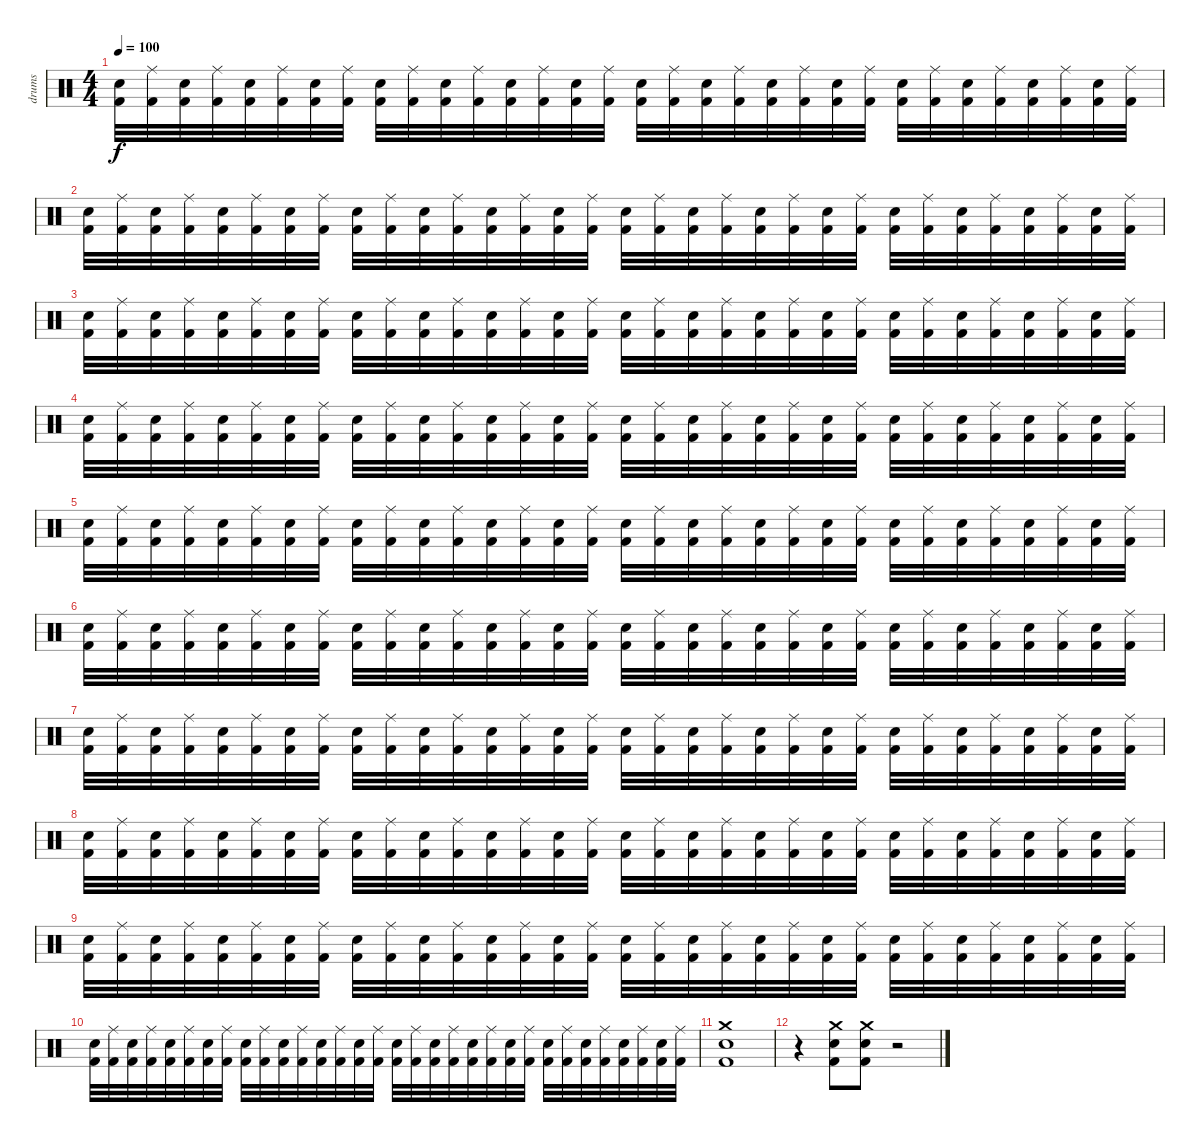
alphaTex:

\track ("drums" "drums") {instrument percussion}
\staff {score}
\articulation defaults
\ts (4 4)
\tempo 100
\clef neutral
\ks c
("Electric Snare (hit)" "Kick (hit) 2").32{dy f} ("Ride (middle)" "Kick (hit) 2").32 ("Electric Snare (hit)" "Kick (hit) 2").32 ("Ride (middle)" "Kick (hit) 2").32 ("Electric Snare (hit)" "Kick (hit) 2").32 ("Ride (middle)" "Kick (hit) 2").32 ("Electric Snare (hit)" "Kick (hit) 2").32 ("Ride (middle)" "Kick (hit) 2").32 ("Electric Snare (hit)" "Kick (hit) 2").32 ("Ride (middle)" "Kick (hit) 2").32 ("Electric Snare (hit)" "Kick (hit) 2").32 ("Ride (middle)" "Kick (hit) 2").32 ("Electric Snare (hit)" "Kick (hit) 2").32 ("Ride (middle)" "Kick (hit) 2").32 ("Electric Snare (hit)" "Kick (hit) 2").32 ("Ride (middle)" "Kick (hit) 2").32 ("Electric Snare (hit)" "Kick (hit) 2").32 ("Ride (middle)" "Kick (hit) 2").32 ("Electric Snare (hit)" "Kick (hit) 2").32 ("Ride (middle)" "Kick (hit) 2").32 ("Electric Snare (hit)" "Kick (hit) 2").32 ("Ride (middle)" "Kick (hit) 2").32 ("Electric Snare (hit)" "Kick (hit) 2").32 ("Ride (middle)" "Kick (hit) 2").32 ("Electric Snare (hit)" "Kick (hit) 2").32 ("Ride (middle)" "Kick (hit) 2").32 ("Electric Snare (hit)" "Kick (hit) 2").32 ("Ride (middle)" "Kick (hit) 2").32 ("Electric Snare (hit)" "Kick (hit) 2").32 ("Ride (middle)" "Kick (hit) 2").32 ("Electric Snare (hit)" "Kick (hit) 2").32 ("Ride (middle)" "Kick (hit) 2").32 |
("Electric Snare (hit)" "Kick (hit) 2").32 ("Ride (middle)" "Kick (hit) 2").32 ("Electric Snare (hit)" "Kick (hit) 2").32 ("Ride (middle)" "Kick (hit) 2").32 ("Electric Snare (hit)" "Kick (hit) 2").32 ("Ride (middle)" "Kick (hit) 2").32 ("Electric Snare (hit)" "Kick (hit) 2").32 ("Ride (middle)" "Kick (hit) 2").32 ("Electric Snare (hit)" "Kick (hit) 2").32 ("Ride (middle)" "Kick (hit) 2").32 ("Electric Snare (hit)" "Kick (hit) 2").32 ("Ride (middle)" "Kick (hit) 2").32 ("Electric Snare (hit)" "Kick (hit) 2").32 ("Ride (middle)" "Kick (hit) 2").32 ("Electric Snare (hit)" "Kick (hit) 2").32 ("Ride (middle)" "Kick (hit) 2").32 ("Electric Snare (hit)" "Kick (hit) 2").32 ("Ride (middle)" "Kick (hit) 2").32 ("Electric Snare (hit)" "Kick (hit) 2").32 ("Ride (middle)" "Kick (hit) 2").32 ("Electric Snare (hit)" "Kick (hit) 2").32 ("Ride (middle)" "Kick (hit) 2").32 ("Electric Snare (hit)" "Kick (hit) 2").32 ("Ride (middle)" "Kick (hit) 2").32 ("Electric Snare (hit)" "Kick (hit) 2").32 ("Ride (middle)" "Kick (hit) 2").32 ("Electric Snare (hit)" "Kick (hit) 2").32 ("Ride (middle)" "Kick (hit) 2").32 ("Electric Snare (hit)" "Kick (hit) 2").32 ("Ride (middle)" "Kick (hit) 2").32 ("Electric Snare (hit)" "Kick (hit) 2").32 ("Ride (middle)" "Kick (hit) 2").32 |
("Electric Snare (hit)" "Kick (hit) 2").32 ("Ride (middle)" "Kick (hit) 2").32 ("Electric Snare (hit)" "Kick (hit) 2").32 ("Ride (middle)" "Kick (hit) 2").32 ("Electric Snare (hit)" "Kick (hit) 2").32 ("Ride (middle)" "Kick (hit) 2").32 ("Electric Snare (hit)" "Kick (hit) 2").32 ("Ride (middle)" "Kick (hit) 2").32 ("Electric Snare (hit)" "Kick (hit) 2").32 ("Ride (middle)" "Kick (hit) 2").32 ("Electric Snare (hit)" "Kick (hit) 2").32 ("Ride (middle)" "Kick (hit) 2").32 ("Electric Snare (hit)" "Kick (hit) 2").32 ("Ride (middle)" "Kick (hit) 2").32 ("Electric Snare (hit)" "Kick (hit) 2").32 ("Ride (middle)" "Kick (hit) 2").32 ("Electric Snare (hit)" "Kick (hit) 2").32 ("Ride (middle)" "Kick (hit) 2").32 ("Electric Snare (hit)" "Kick (hit) 2").32 ("Ride (middle)" "Kick (hit) 2").32 ("Electric Snare (hit)" "Kick (hit) 2").32 ("Ride (middle)" "Kick (hit) 2").32 ("Electric Snare (hit)" "Kick (hit) 2").32 ("Ride (middle)" "Kick (hit) 2").32 ("Electric Snare (hit)" "Kick (hit) 2").32 ("Ride (middle)" "Kick (hit) 2").32 ("Electric Snare (hit)" "Kick (hit) 2").32 ("Ride (middle)" "Kick (hit) 2").32 ("Electric Snare (hit)" "Kick (hit) 2").32 ("Ride (middle)" "Kick (hit) 2").32 ("Electric Snare (hit)" "Kick (hit) 2").32 ("Ride (middle)" "Kick (hit) 2").32 |
("Electric Snare (hit)" "Kick (hit) 2").32 ("Ride (middle)" "Kick (hit) 2").32 ("Electric Snare (hit)" "Kick (hit) 2").32 ("Ride (middle)" "Kick (hit) 2").32 ("Electric Snare (hit)" "Kick (hit) 2").32 ("Ride (middle)" "Kick (hit) 2").32 ("Electric Snare (hit)" "Kick (hit) 2").32 ("Ride (middle)" "Kick (hit) 2").32 ("Electric Snare (hit)" "Kick (hit) 2").32 ("Ride (middle)" "Kick (hit) 2").32 ("Electric Snare (hit)" "Kick (hit) 2").32 ("Ride (middle)" "Kick (hit) 2").32 ("Electric Snare (hit)" "Kick (hit) 2").32 ("Ride (middle)" "Kick (hit) 2").32 ("Electric Snare (hit)" "Kick (hit) 2").32 ("Ride (middle)" "Kick (hit) 2").32 ("Electric Snare (hit)" "Kick (hit) 2").32 ("Ride (middle)" "Kick (hit) 2").32 ("Electric Snare (hit)" "Kick (hit) 2").32 ("Ride (middle)" "Kick (hit) 2").32 ("Electric Snare (hit)" "Kick (hit) 2").32 ("Ride (middle)" "Kick (hit) 2").32 ("Electric Snare (hit)" "Kick (hit) 2").32 ("Ride (middle)" "Kick (hit) 2").32 ("Electric Snare (hit)" "Kick (hit) 2").32 ("Ride (middle)" "Kick (hit) 2").32 ("Electric Snare (hit)" "Kick (hit) 2").32 ("Ride (middle)" "Kick (hit) 2").32 ("Electric Snare (hit)" "Kick (hit) 2").32 ("Ride (middle)" "Kick (hit) 2").32 ("Electric Snare (hit)" "Kick (hit) 2").32 ("Ride (middle)" "Kick (hit) 2").32 |
("Electric Snare (hit)" "Kick (hit) 2").32 ("Ride (middle)" "Kick (hit) 2").32 ("Electric Snare (hit)" "Kick (hit) 2").32 ("Ride (middle)" "Kick (hit) 2").32 ("Electric Snare (hit)" "Kick (hit) 2").32 ("Ride (middle)" "Kick (hit) 2").32 ("Electric Snare (hit)" "Kick (hit) 2").32 ("Ride (middle)" "Kick (hit) 2").32 ("Electric Snare (hit)" "Kick (hit) 2").32 ("Ride (middle)" "Kick (hit) 2").32 ("Electric Snare (hit)" "Kick (hit) 2").32 ("Ride (middle)" "Kick (hit) 2").32 ("Electric Snare (hit)" "Kick (hit) 2").32 ("Ride (middle)" "Kick (hit) 2").32 ("Electric Snare (hit)" "Kick (hit) 2").32 ("Ride (middle)" "Kick (hit) 2").32 ("Electric Snare (hit)" "Kick (hit) 2").32 ("Ride (middle)" "Kick (hit) 2").32 ("Electric Snare (hit)" "Kick (hit) 2").32 ("Ride (middle)" "Kick (hit) 2").32 ("Electric Snare (hit)" "Kick (hit) 2").32 ("Ride (middle)" "Kick (hit) 2").32 ("Electric Snare (hit)" "Kick (hit) 2").32 ("Ride (middle)" "Kick (hit) 2").32 ("Electric Snare (hit)" "Kick (hit) 2").32 ("Ride (middle)" "Kick (hit) 2").32 ("Electric Snare (hit)" "Kick (hit) 2").32 ("Ride (middle)" "Kick (hit) 2").32 ("Electric Snare (hit)" "Kick (hit) 2").32 ("Ride (middle)" "Kick (hit) 2").32 ("Electric Snare (hit)" "Kick (hit) 2").32 ("Ride (middle)" "Kick (hit) 2").32 |
("Electric Snare (hit)" "Kick (hit) 2").32 ("Ride (middle)" "Kick (hit) 2").32 ("Electric Snare (hit)" "Kick (hit) 2").32 ("Ride (middle)" "Kick (hit) 2").32 ("Electric Snare (hit)" "Kick (hit) 2").32 ("Ride (middle)" "Kick (hit) 2").32 ("Electric Snare (hit)" "Kick (hit) 2").32 ("Ride (middle)" "Kick (hit) 2").32 ("Electric Snare (hit)" "Kick (hit) 2").32 ("Ride (middle)" "Kick (hit) 2").32 ("Electric Snare (hit)" "Kick (hit) 2").32 ("Ride (middle)" "Kick (hit) 2").32 ("Electric Snare (hit)" "Kick (hit) 2").32 ("Ride (middle)" "Kick (hit) 2").32 ("Electric Snare (hit)" "Kick (hit) 2").32 ("Ride (middle)" "Kick (hit) 2").32 ("Electric Snare (hit)" "Kick (hit) 2").32 ("Ride (middle)" "Kick (hit) 2").32 ("Electric Snare (hit)" "Kick (hit) 2").32 ("Ride (middle)" "Kick (hit) 2").32 ("Electric Snare (hit)" "Kick (hit) 2").32 ("Ride (middle)" "Kick (hit) 2").32 ("Electric Snare (hit)" "Kick (hit) 2").32 ("Ride (middle)" "Kick (hit) 2").32 ("Electric Snare (hit)" "Kick (hit) 2").32 ("Ride (middle)" "Kick (hit) 2").32 ("Electric Snare (hit)" "Kick (hit) 2").32 ("Ride (middle)" "Kick (hit) 2").32 ("Electric Snare (hit)" "Kick (hit) 2").32 ("Ride (middle)" "Kick (hit) 2").32 ("Electric Snare (hit)" "Kick (hit) 2").32 ("Ride (middle)" "Kick (hit) 2").32 |
("Electric Snare (hit)" "Kick (hit) 2").32 ("Ride (middle)" "Kick (hit) 2").32 ("Electric Snare (hit)" "Kick (hit) 2").32 ("Ride (middle)" "Kick (hit) 2").32 ("Electric Snare (hit)" "Kick (hit) 2").32 ("Ride (middle)" "Kick (hit) 2").32 ("Electric Snare (hit)" "Kick (hit) 2").32 ("Ride (middle)" "Kick (hit) 2").32 ("Electric Snare (hit)" "Kick (hit) 2").32 ("Ride (middle)" "Kick (hit) 2").32 ("Electric Snare (hit)" "Kick (hit) 2").32 ("Ride (middle)" "Kick (hit) 2").32 ("Electric Snare (hit)" "Kick (hit) 2").32 ("Ride (middle)" "Kick (hit) 2").32 ("Electric Snare (hit)" "Kick (hit) 2").32 ("Ride (middle)" "Kick (hit) 2").32 ("Electric Snare (hit)" "Kick (hit) 2").32 ("Ride (middle)" "Kick (hit) 2").32 ("Electric Snare (hit)" "Kick (hit) 2").32 ("Ride (middle)" "Kick (hit) 2").32 ("Electric Snare (hit)" "Kick (hit) 2").32 ("Ride (middle)" "Kick (hit) 2").32 ("Electric Snare (hit)" "Kick (hit) 2").32 ("Ride (middle)" "Kick (hit) 2").32 ("Electric Snare (hit)" "Kick (hit) 2").32 ("Ride (middle)" "Kick (hit) 2").32 ("Electric Snare (hit)" "Kick (hit) 2").32 ("Ride (middle)" "Kick (hit) 2").32 ("Electric Snare (hit)" "Kick (hit) 2").32 ("Ride (middle)" "Kick (hit) 2").32 ("Electric Snare (hit)" "Kick (hit) 2").32 ("Ride (middle)" "Kick (hit) 2").32 |
("Electric Snare (hit)" "Kick (hit) 2").32 ("Ride (middle)" "Kick (hit) 2").32 ("Electric Snare (hit)" "Kick (hit) 2").32 ("Ride (middle)" "Kick (hit) 2").32 ("Electric Snare (hit)" "Kick (hit) 2").32 ("Ride (middle)" "Kick (hit) 2").32 ("Electric Snare (hit)" "Kick (hit) 2").32 ("Ride (middle)" "Kick (hit) 2").32 ("Electric Snare (hit)" "Kick (hit) 2").32 ("Ride (middle)" "Kick (hit) 2").32 ("Electric Snare (hit)" "Kick (hit) 2").32 ("Ride (middle)" "Kick (hit) 2").32 ("Electric Snare (hit)" "Kick (hit) 2").32 ("Ride (middle)" "Kick (hit) 2").32 ("Electric Snare (hit)" "Kick (hit) 2").32 ("Ride (middle)" "Kick (hit) 2").32 ("Electric Snare (hit)" "Kick (hit) 2").32 ("Ride (middle)" "Kick (hit) 2").32 ("Electric Snare (hit)" "Kick (hit) 2").32 ("Ride (middle)" "Kick (hit) 2").32 ("Electric Snare (hit)" "Kick (hit) 2").32 ("Ride (middle)" "Kick (hit) 2").32 ("Electric Snare (hit)" "Kick (hit) 2").32 ("Ride (middle)" "Kick (hit) 2").32 ("Electric Snare (hit)" "Kick (hit) 2").32 ("Ride (middle)" "Kick (hit) 2").32 ("Electric Snare (hit)" "Kick (hit) 2").32 ("Ride (middle)" "Kick (hit) 2").32 ("Electric Snare (hit)" "Kick (hit) 2").32 ("Ride (middle)" "Kick (hit) 2").32 ("Electric Snare (hit)" "Kick (hit) 2").32 ("Ride (middle)" "Kick (hit) 2").32 |
("Electric Snare (hit)" "Kick (hit) 2").32 ("Ride (middle)" "Kick (hit) 2").32 ("Electric Snare (hit)" "Kick (hit) 2").32 ("Ride (middle)" "Kick (hit) 2").32 ("Electric Snare (hit)" "Kick (hit) 2").32 ("Ride (middle)" "Kick (hit) 2").32 ("Electric Snare (hit)" "Kick (hit) 2").32 ("Ride (middle)" "Kick (hit) 2").32 ("Electric Snare (hit)" "Kick (hit) 2").32 ("Ride (middle)" "Kick (hit) 2").32 ("Electric Snare (hit)" "Kick (hit) 2").32 ("Ride (middle)" "Kick (hit) 2").32 ("Electric Snare (hit)" "Kick (hit) 2").32 ("Ride (middle)" "Kick (hit) 2").32 ("Electric Snare (hit)" "Kick (hit) 2").32 ("Ride (middle)" "Kick (hit) 2").32 ("Electric Snare (hit)" "Kick (hit) 2").32 ("Ride (middle)" "Kick (hit) 2").32 ("Electric Snare (hit)" "Kick (hit) 2").32 ("Ride (middle)" "Kick (hit) 2").32 ("Electric Snare (hit)" "Kick (hit) 2").32 ("Ride (middle)" "Kick (hit) 2").32 ("Electric Snare (hit)" "Kick (hit) 2").32 ("Ride (middle)" "Kick (hit) 2").32 ("Electric Snare (hit)" "Kick (hit) 2").32 ("Ride (middle)" "Kick (hit) 2").32 ("Electric Snare (hit)" "Kick (hit) 2").32 ("Ride (middle)" "Kick (hit) 2").32 ("Electric Snare (hit)" "Kick (hit) 2").32 ("Ride (middle)" "Kick (hit) 2").32 ("Electric Snare (hit)" "Kick (hit) 2").32 ("Ride (middle)" "Kick (hit) 2").32 |
("Electric Snare (hit)" "Kick (hit) 2").32 ("Ride (middle)" "Kick (hit) 2").32 ("Electric Snare (hit)" "Kick (hit) 2").32 ("Ride (middle)" "Kick (hit) 2").32 ("Electric Snare (hit)" "Kick (hit) 2").32 ("Ride (middle)" "Kick (hit) 2").32 ("Electric Snare (hit)" "Kick (hit) 2").32 ("Ride (middle)" "Kick (hit) 2").32 ("Electric Snare (hit)" "Kick (hit) 2").32 ("Ride (middle)" "Kick (hit) 2").32 ("Electric Snare (hit)" "Kick (hit) 2").32 ("Ride (middle)" "Kick (hit) 2").32 ("Electric Snare (hit)" "Kick (hit) 2").32 ("Ride (middle)" "Kick (hit) 2").32 ("Electric Snare (hit)" "Kick (hit) 2").32 ("Ride (middle)" "Kick (hit) 2").32 ("Electric Snare (hit)" "Kick (hit) 2").32 ("Ride (middle)" "Kick (hit) 2").32 ("Electric Snare (hit)" "Kick (hit) 2").32 ("Ride (middle)" "Kick (hit) 2").32 ("Electric Snare (hit)" "Kick (hit) 2").32 ("Ride (middle)" "Kick (hit) 2").32 ("Electric Snare (hit)" "Kick (hit) 2").32 ("Ride (middle)" "Kick (hit) 2").32 ("Electric Snare (hit)" "Kick (hit) 2").32 ("Ride (middle)" "Kick (hit) 2").32 ("Electric Snare (hit)" "Kick (hit) 2").32 ("Ride (middle)" "Kick (hit) 2").32 ("Electric Snare (hit)" "Kick (hit) 2").32 ("Ride (middle)" "Kick (hit) 2").32 ("Electric Snare (hit)" "Kick (hit) 2").32 ("Ride (middle)" "Kick (hit) 2").32 |
("Crash medium (hit)" "Electric Snare (hit)" "Kick (hit) 2").1 |
r.4 ("Crash medium (hit)" "Electric Snare (hit)" "Kick (hit) 2").8 ("Crash medium (hit)" "Electric Snare (hit)" "Kick (hit) 2").8 r.2
